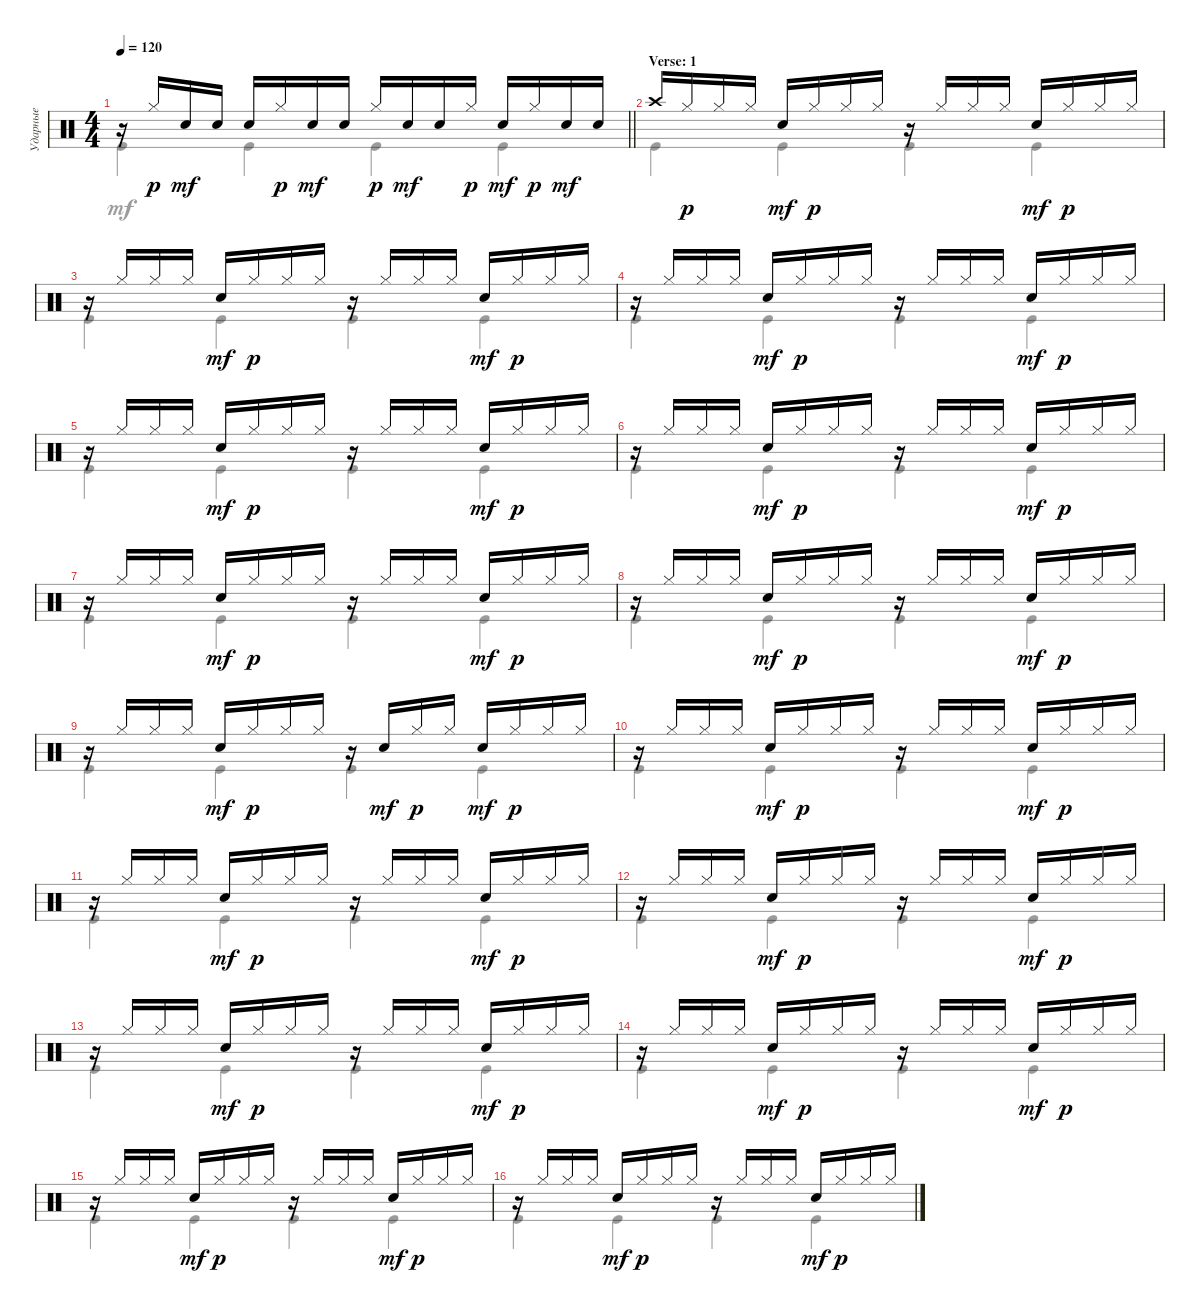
\track ("Ударные" "Ударные") {instrument percussion}
\staff {score}
\articulation defaults
\voice
\ts (4 4)
\tempo 120
\clef neutral
\barLineRight lightlight
\ks c
r.16{dy p} "Hi-Hat (closed)".16 "Snare (hit) 2".16{dy mf} "Snare (hit) 2".16 "Snare (hit) 2".16 "Hi-Hat (closed)".16{dy p} "Snare (hit) 2".16{dy mf} "Snare (hit) 2".16 "Hi-Hat (closed)".16{dy p} "Snare (hit) 2".16{dy mf} "Snare (hit) 2".16 "Hi-Hat (closed)".16{dy p} "Snare (hit) 2".16{dy mf} "Hi-Hat (closed)".16{dy p} "Snare (hit) 2".16{dy mf} "Snare (hit) 2".16 |
\section ("" "Verse: 1")
"Crash high (hit)".16 "Hi-Hat (closed)".16{dy p} "Hi-Hat (closed)".16 "Hi-Hat (closed)".16 "Snare (hit) 2".16{dy mf} "Hi-Hat (closed)".16{dy p} "Hi-Hat (closed)".16 "Hi-Hat (closed)".16 r.16 "Hi-Hat (closed)".16 "Hi-Hat (closed)".16 "Hi-Hat (closed)".16 "Snare (hit) 2".16{dy mf} "Hi-Hat (closed)".16{dy p} "Hi-Hat (closed)".16 "Hi-Hat (closed)".16 |
r.16 "Hi-Hat (closed)".16 "Hi-Hat (closed)".16 "Hi-Hat (closed)".16 "Snare (hit) 2".16{dy mf} "Hi-Hat (closed)".16{dy p} "Hi-Hat (closed)".16 "Hi-Hat (closed)".16 r.16 "Hi-Hat (closed)".16 "Hi-Hat (closed)".16 "Hi-Hat (closed)".16 "Snare (hit) 2".16{dy mf} "Hi-Hat (closed)".16{dy p} "Hi-Hat (closed)".16 "Hi-Hat (closed)".16 |
r.16 "Hi-Hat (closed)".16 "Hi-Hat (closed)".16 "Hi-Hat (closed)".16 "Snare (hit) 2".16{dy mf} "Hi-Hat (closed)".16{dy p} "Hi-Hat (closed)".16 "Hi-Hat (closed)".16 r.16 "Hi-Hat (closed)".16 "Hi-Hat (closed)".16 "Hi-Hat (closed)".16 "Snare (hit) 2".16{dy mf} "Hi-Hat (closed)".16{dy p} "Hi-Hat (closed)".16 "Hi-Hat (closed)".16 |
r.16 "Hi-Hat (closed)".16 "Hi-Hat (closed)".16 "Hi-Hat (closed)".16 "Snare (hit) 2".16{dy mf} "Hi-Hat (closed)".16{dy p} "Hi-Hat (closed)".16 "Hi-Hat (closed)".16 r.16 "Hi-Hat (closed)".16 "Hi-Hat (closed)".16 "Hi-Hat (closed)".16 "Snare (hit) 2".16{dy mf} "Hi-Hat (closed)".16{dy p} "Hi-Hat (closed)".16 "Hi-Hat (closed)".16 |
r.16 "Hi-Hat (closed)".16 "Hi-Hat (closed)".16 "Hi-Hat (closed)".16 "Snare (hit) 2".16{dy mf} "Hi-Hat (closed)".16{dy p} "Hi-Hat (closed)".16 "Hi-Hat (closed)".16 r.16 "Hi-Hat (closed)".16 "Hi-Hat (closed)".16 "Hi-Hat (closed)".16 "Snare (hit) 2".16{dy mf} "Hi-Hat (closed)".16{dy p} "Hi-Hat (closed)".16 "Hi-Hat (closed)".16 |
r.16 "Hi-Hat (closed)".16 "Hi-Hat (closed)".16 "Hi-Hat (closed)".16 "Snare (hit) 2".16{dy mf} "Hi-Hat (closed)".16{dy p} "Hi-Hat (closed)".16 "Hi-Hat (closed)".16 r.16 "Hi-Hat (closed)".16 "Hi-Hat (closed)".16 "Hi-Hat (closed)".16 "Snare (hit) 2".16{dy mf} "Hi-Hat (closed)".16{dy p} "Hi-Hat (closed)".16 "Hi-Hat (closed)".16 |
r.16 "Hi-Hat (closed)".16 "Hi-Hat (closed)".16 "Hi-Hat (closed)".16 "Snare (hit) 2".16{dy mf} "Hi-Hat (closed)".16{dy p} "Hi-Hat (closed)".16 "Hi-Hat (closed)".16 r.16 "Hi-Hat (closed)".16 "Hi-Hat (closed)".16 "Hi-Hat (closed)".16 "Snare (hit) 2".16{dy mf} "Hi-Hat (closed)".16{dy p} "Hi-Hat (closed)".16 "Hi-Hat (closed)".16 |
r.16 "Hi-Hat (closed)".16 "Hi-Hat (closed)".16 "Hi-Hat (closed)".16 "Snare (hit) 2".16{dy mf} "Hi-Hat (closed)".16{dy p} "Hi-Hat (closed)".16 "Hi-Hat (closed)".16 r.16 "Snare (hit) 2".16{dy mf} "Hi-Hat (closed)".16{dy p} "Hi-Hat (closed)".16 "Snare (hit) 2".16{dy mf} "Hi-Hat (closed)".16{dy p} "Hi-Hat (closed)".16 "Hi-Hat (closed)".16 |
r.16 "Hi-Hat (closed)".16 "Hi-Hat (closed)".16 "Hi-Hat (closed)".16 "Snare (hit) 2".16{dy mf} "Hi-Hat (closed)".16{dy p} "Hi-Hat (closed)".16 "Hi-Hat (closed)".16 r.16 "Hi-Hat (closed)".16 "Hi-Hat (closed)".16 "Hi-Hat (closed)".16 "Snare (hit) 2".16{dy mf} "Hi-Hat (closed)".16{dy p} "Hi-Hat (closed)".16 "Hi-Hat (closed)".16 |
r.16 "Hi-Hat (closed)".16 "Hi-Hat (closed)".16 "Hi-Hat (closed)".16 "Snare (hit) 2".16{dy mf} "Hi-Hat (closed)".16{dy p} "Hi-Hat (closed)".16 "Hi-Hat (closed)".16 r.16 "Hi-Hat (closed)".16 "Hi-Hat (closed)".16 "Hi-Hat (closed)".16 "Snare (hit) 2".16{dy mf} "Hi-Hat (closed)".16{dy p} "Hi-Hat (closed)".16 "Hi-Hat (closed)".16 |
r.16 "Hi-Hat (closed)".16 "Hi-Hat (closed)".16 "Hi-Hat (closed)".16 "Snare (hit) 2".16{dy mf} "Hi-Hat (closed)".16{dy p} "Hi-Hat (closed)".16 "Hi-Hat (closed)".16 r.16 "Hi-Hat (closed)".16 "Hi-Hat (closed)".16 "Hi-Hat (closed)".16 "Snare (hit) 2".16{dy mf} "Hi-Hat (closed)".16{dy p} "Hi-Hat (closed)".16 "Hi-Hat (closed)".16 |
r.16 "Hi-Hat (closed)".16 "Hi-Hat (closed)".16 "Hi-Hat (closed)".16 "Snare (hit) 2".16{dy mf} "Hi-Hat (closed)".16{dy p} "Hi-Hat (closed)".16 "Hi-Hat (closed)".16 r.16 "Hi-Hat (closed)".16 "Hi-Hat (closed)".16 "Hi-Hat (closed)".16 "Snare (hit) 2".16{dy mf} "Hi-Hat (closed)".16{dy p} "Hi-Hat (closed)".16 "Hi-Hat (closed)".16 |
r.16 "Hi-Hat (closed)".16 "Hi-Hat (closed)".16 "Hi-Hat (closed)".16 "Snare (hit) 2".16{dy mf} "Hi-Hat (closed)".16{dy p} "Hi-Hat (closed)".16 "Hi-Hat (closed)".16 r.16 "Hi-Hat (closed)".16 "Hi-Hat (closed)".16 "Hi-Hat (closed)".16 "Snare (hit) 2".16{dy mf} "Hi-Hat (closed)".16{dy p} "Hi-Hat (closed)".16 "Hi-Hat (closed)".16 |
r.16 "Hi-Hat (closed)".16 "Hi-Hat (closed)".16 "Hi-Hat (closed)".16 "Snare (hit) 2".16{dy mf} "Hi-Hat (closed)".16{dy p} "Hi-Hat (closed)".16 "Hi-Hat (closed)".16 r.16 "Hi-Hat (closed)".16 "Hi-Hat (closed)".16 "Hi-Hat (closed)".16 "Snare (hit) 2".16{dy mf} "Hi-Hat (closed)".16{dy p} "Hi-Hat (closed)".16 "Hi-Hat (closed)".16 |
r.16 "Hi-Hat (closed)".16 "Hi-Hat (closed)".16 "Hi-Hat (closed)".16 "Snare (hit) 2".16{dy mf} "Hi-Hat (closed)".16{dy p} "Hi-Hat (closed)".16 "Hi-Hat (closed)".16 r.16 "Hi-Hat (closed)".16 "Hi-Hat (closed)".16 "Hi-Hat (closed)".16 "Snare (hit) 2".16{dy mf} "Hi-Hat (closed)".16{dy p} "Hi-Hat (closed)".16 "Hi-Hat (closed)".16
\voice
\clef neutral
\ottava regular
\simile none
\barLineRight lightlight
\ks c "Kick (hit)".4{dy mf} "Kick (hit)".4 "Kick (hit)".4 "Kick (hit)".4
|
"Kick (hit)".4 "Kick (hit)".4 "Kick (hit)".4 "Kick (hit)".4 |
"Kick (hit)".4 "Kick (hit)".4 "Kick (hit)".4 "Kick (hit)".4 |
"Kick (hit)".4 "Kick (hit)".4 "Kick (hit)".4 "Kick (hit)".4 |
"Kick (hit)".4 "Kick (hit)".4 "Kick (hit)".4 "Kick (hit)".4 |
"Kick (hit)".4 "Kick (hit)".4 "Kick (hit)".4 "Kick (hit)".4 |
"Kick (hit)".4 "Kick (hit)".4 "Kick (hit)".4 "Kick (hit)".4 |
"Kick (hit)".4 "Kick (hit)".4 "Kick (hit)".4 "Kick (hit)".4 |
"Kick (hit)".4 "Kick (hit)".4 "Kick (hit)".4 "Kick (hit)".4 |
"Kick (hit)".4 "Kick (hit)".4 "Kick (hit)".4 "Kick (hit)".4 |
"Kick (hit)".4 "Kick (hit)".4 "Kick (hit)".4 "Kick (hit)".4 |
"Kick (hit)".4 "Kick (hit)".4 "Kick (hit)".4 "Kick (hit)".4 |
"Kick (hit)".4 "Kick (hit)".4 "Kick (hit)".4 "Kick (hit)".4 |
"Kick (hit)".4 "Kick (hit)".4 "Kick (hit)".4 "Kick (hit)".4 |
"Kick (hit)".4 "Kick (hit)".4 "Kick (hit)".4 "Kick (hit)".4 |
"Kick (hit)".4 "Kick (hit)".4 "Kick (hit)".4 "Kick (hit)".4
